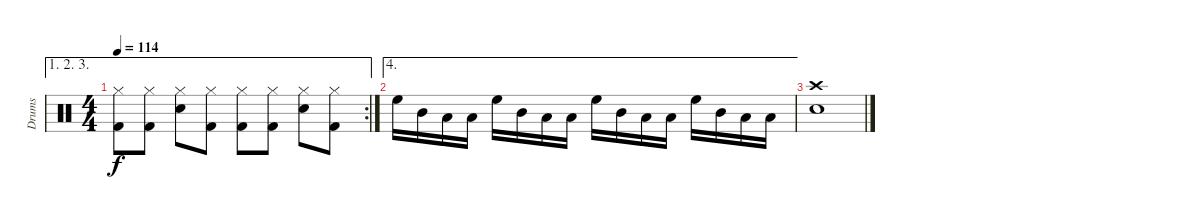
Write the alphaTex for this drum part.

\track ("Drums" "Drums") {instrument percussion}
\staff {score}
\articulation defaults
\ae (1 2 3)
\rc 2
\ts (4 4)
\tempo 114
\clef neutral
\ks c
("Hi-Hat (closed)" "Kick (hit) 2").8{dy f} ("Hi-Hat (closed)" "Kick (hit) 2").8 ("Hi-Hat (closed)" "Snare (hit) 2").8 ("Hi-Hat (closed)" "Kick (hit) 2").8 ("Hi-Hat (closed)" "Kick (hit) 2").8 ("Hi-Hat (closed)" "Kick (hit) 2").8 ("Hi-Hat (closed)" "Snare (hit) 2").8 ("Hi-Hat (closed)" "Kick (hit) 2").8 |
\ae 4 "High Floor Tom (hit)".16 "Mid Tom (hit)".16 "Low Tom (hit)".16 "Low Floor Tom (hit)".16 "High Floor Tom (hit)".16 "Mid Tom (hit)".16 "Low Tom (hit)".16 "Low Floor Tom (hit)".16 "High Floor Tom (hit)".16 "Mid Tom (hit)".16 "Low Tom (hit)".16 "Low Floor Tom (hit)".16 "High Floor Tom (hit)".16 "Mid Tom (hit)".16 "Low Tom (hit)".16 "Low Floor Tom (hit)".16
|
("Crash high (hit)" "Snare (hit) 2").1
